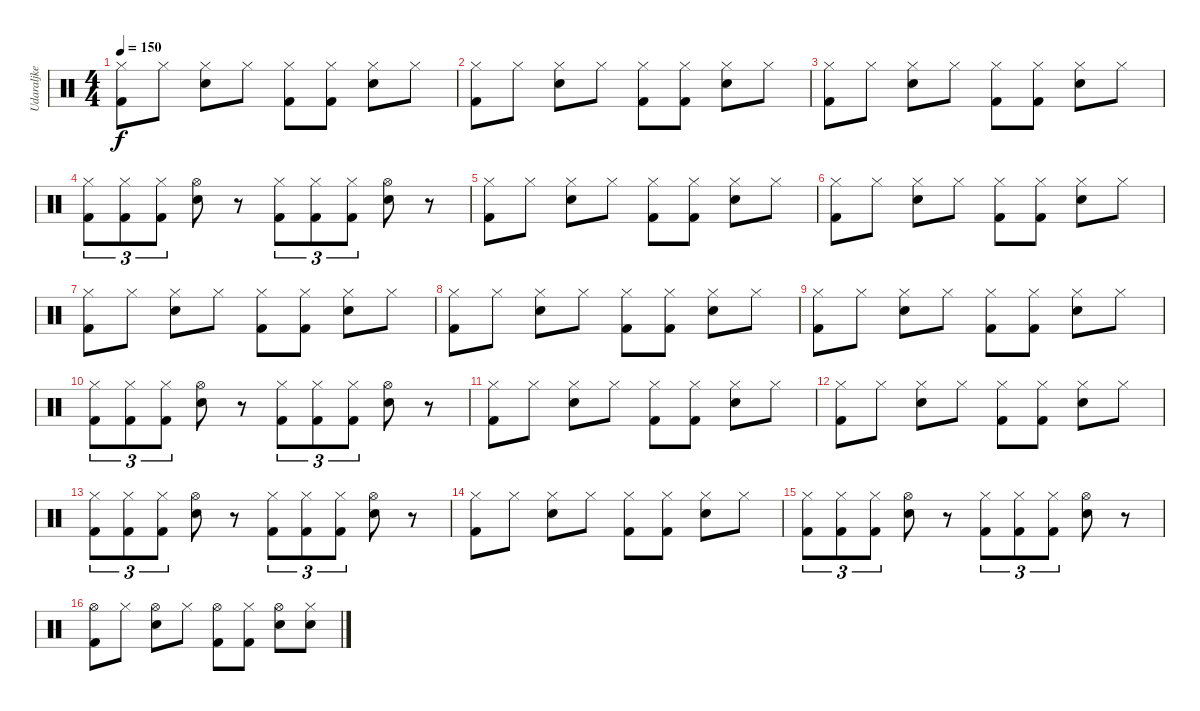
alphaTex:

\track ("Udaraljke" "Udaraljke") {instrument percussion}
\staff {score}
\articulation defaults
\ts (4 4)
\tempo 150
\clef neutral
\ks c
("Hi-Hat (closed)" "Kick (hit) 2").8{dy f} "Hi-Hat (closed)".8 ("Hi-Hat (closed)" "Snare (hit) 2").8 "Hi-Hat (closed)".8 ("Hi-Hat (closed)" "Kick (hit) 2").8 ("Hi-Hat (closed)" "Kick (hit) 2").8 ("Hi-Hat (closed)" "Snare (hit) 2").8 "Hi-Hat (closed)".8 |
("Hi-Hat (closed)" "Kick (hit) 2").8 "Hi-Hat (closed)".8 ("Hi-Hat (closed)" "Snare (hit) 2").8 "Hi-Hat (closed)".8 ("Hi-Hat (closed)" "Kick (hit) 2").8 ("Hi-Hat (closed)" "Kick (hit) 2").8 ("Hi-Hat (closed)" "Snare (hit) 2").8 "Hi-Hat (closed)".8 |
("Hi-Hat (closed)" "Kick (hit) 2").8 "Hi-Hat (closed)".8 ("Hi-Hat (closed)" "Snare (hit) 2").8 "Hi-Hat (closed)".8 ("Hi-Hat (closed)" "Kick (hit) 2").8 ("Hi-Hat (closed)" "Kick (hit) 2").8 ("Hi-Hat (closed)" "Snare (hit) 2").8 "Hi-Hat (closed)".8 |
("Hi-Hat (closed)" "Kick (hit) 2").8{tu (3 2)} ("Hi-Hat (closed)" "Kick (hit) 2").8{tu (3 2)} ("Hi-Hat (closed)" "Kick (hit) 2").8{tu (3 2)} ("Hi-Hat (open)" "Snare (hit) 2").8 r.8 ("Hi-Hat (closed)" "Kick (hit) 2").8{tu (3 2)} ("Hi-Hat (closed)" "Kick (hit) 2").8{tu (3 2)} ("Hi-Hat (closed)" "Kick (hit) 2").8{tu (3 2)} ("Hi-Hat (open)" "Snare (hit) 2").8 r.8 |
("Hi-Hat (closed)" "Kick (hit) 2").8 "Hi-Hat (closed)".8 ("Hi-Hat (closed)" "Snare (hit) 2").8 "Hi-Hat (closed)".8 ("Hi-Hat (closed)" "Kick (hit) 2").8 ("Hi-Hat (closed)" "Kick (hit) 2").8 ("Hi-Hat (closed)" "Snare (hit) 2").8 "Hi-Hat (closed)".8 |
("Hi-Hat (closed)" "Kick (hit) 2").8 "Hi-Hat (closed)".8 ("Hi-Hat (closed)" "Snare (hit) 2").8 "Hi-Hat (closed)".8 ("Hi-Hat (closed)" "Kick (hit) 2").8 ("Hi-Hat (closed)" "Kick (hit) 2").8 ("Hi-Hat (closed)" "Snare (hit) 2").8 "Hi-Hat (closed)".8 |
("Hi-Hat (closed)" "Kick (hit) 2").8 "Hi-Hat (closed)".8 ("Hi-Hat (closed)" "Snare (hit) 2").8 "Hi-Hat (closed)".8 ("Hi-Hat (closed)" "Kick (hit) 2").8 ("Hi-Hat (closed)" "Kick (hit) 2").8 ("Hi-Hat (closed)" "Snare (hit) 2").8 "Hi-Hat (closed)".8 |
("Hi-Hat (closed)" "Kick (hit) 2").8 "Hi-Hat (closed)".8 ("Hi-Hat (closed)" "Snare (hit) 2").8 "Hi-Hat (closed)".8 ("Hi-Hat (closed)" "Kick (hit) 2").8 ("Hi-Hat (closed)" "Kick (hit) 2").8 ("Hi-Hat (closed)" "Snare (hit) 2").8 "Hi-Hat (closed)".8 |
("Hi-Hat (closed)" "Kick (hit) 2").8 "Hi-Hat (closed)".8 ("Hi-Hat (closed)" "Snare (hit) 2").8 "Hi-Hat (closed)".8 ("Hi-Hat (closed)" "Kick (hit) 2").8 ("Hi-Hat (closed)" "Kick (hit) 2").8 ("Hi-Hat (closed)" "Snare (hit) 2").8 "Hi-Hat (closed)".8 |
("Hi-Hat (closed)" "Kick (hit) 2").8{tu (3 2)} ("Hi-Hat (closed)" "Kick (hit) 2").8{tu (3 2)} ("Hi-Hat (closed)" "Kick (hit) 2").8{tu (3 2)} ("Hi-Hat (open)" "Snare (hit) 2").8 r.8 ("Hi-Hat (closed)" "Kick (hit) 2").8{tu (3 2)} ("Hi-Hat (closed)" "Kick (hit) 2").8{tu (3 2)} ("Hi-Hat (closed)" "Kick (hit) 2").8{tu (3 2)} ("Hi-Hat (open)" "Snare (hit) 2").8 r.8 |
("Hi-Hat (closed)" "Kick (hit) 2").8 "Hi-Hat (closed)".8 ("Hi-Hat (closed)" "Snare (hit) 2").8 "Hi-Hat (closed)".8 ("Hi-Hat (closed)" "Kick (hit) 2").8 ("Hi-Hat (closed)" "Kick (hit) 2").8 ("Hi-Hat (closed)" "Snare (hit) 2").8 "Hi-Hat (closed)".8 |
("Hi-Hat (closed)" "Kick (hit) 2").8 "Hi-Hat (closed)".8 ("Hi-Hat (closed)" "Snare (hit) 2").8 "Hi-Hat (closed)".8 ("Hi-Hat (closed)" "Kick (hit) 2").8 ("Hi-Hat (closed)" "Kick (hit) 2").8 ("Hi-Hat (closed)" "Snare (hit) 2").8 "Hi-Hat (closed)".8 |
("Hi-Hat (closed)" "Kick (hit) 2").8{tu (3 2)} ("Hi-Hat (closed)" "Kick (hit) 2").8{tu (3 2)} ("Hi-Hat (closed)" "Kick (hit) 2").8{tu (3 2)} ("Hi-Hat (open)" "Snare (hit) 2").8 r.8 ("Hi-Hat (closed)" "Kick (hit) 2").8{tu (3 2)} ("Hi-Hat (closed)" "Kick (hit) 2").8{tu (3 2)} ("Hi-Hat (closed)" "Kick (hit) 2").8{tu (3 2)} ("Hi-Hat (open)" "Snare (hit) 2").8 r.8 |
("Hi-Hat (closed)" "Kick (hit) 2").8 "Hi-Hat (closed)".8 ("Hi-Hat (closed)" "Snare (hit) 2").8 "Hi-Hat (closed)".8 ("Hi-Hat (closed)" "Kick (hit) 2").8 ("Hi-Hat (closed)" "Kick (hit) 2").8 ("Hi-Hat (closed)" "Snare (hit) 2").8 "Hi-Hat (closed)".8 |
("Hi-Hat (closed)" "Kick (hit) 2").8{tu (3 2)} ("Hi-Hat (closed)" "Kick (hit) 2").8{tu (3 2)} ("Hi-Hat (closed)" "Kick (hit) 2").8{tu (3 2)} ("Hi-Hat (open)" "Snare (hit) 2").8 r.8 ("Hi-Hat (closed)" "Kick (hit) 2").8{tu (3 2)} ("Hi-Hat (closed)" "Kick (hit) 2").8{tu (3 2)} ("Hi-Hat (closed)" "Kick (hit) 2").8{tu (3 2)} ("Hi-Hat (open)" "Snare (hit) 2").8 r.8 |
("Hi-Hat (open)" "Kick (hit) 2").8 "Hi-Hat (closed)".8 ("Hi-Hat (open)" "Snare (hit) 2").8 "Hi-Hat (closed)".8 ("Hi-Hat (open)" "Kick (hit) 2").8 ("Hi-Hat (closed)" "Kick (hit) 2").8 ("Hi-Hat (open)" "Snare (hit) 2").8 ("Hi-Hat (closed)" "Snare (hit) 2").8
